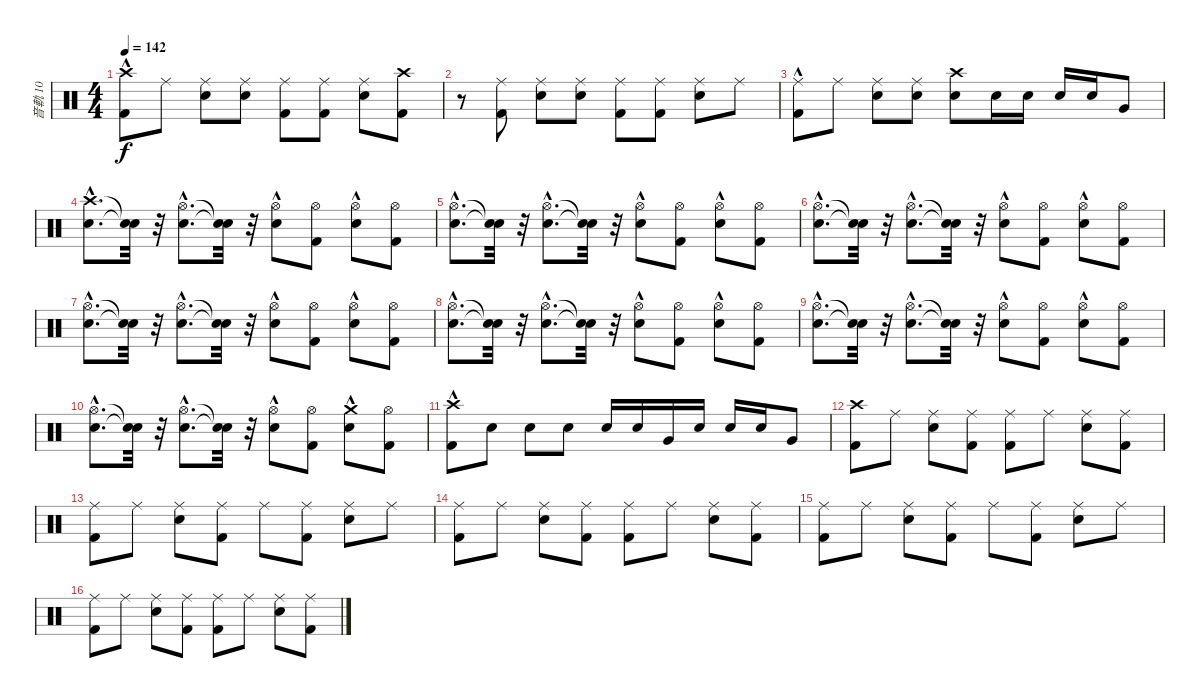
\track ("音軌 10" "音軌 10") {instrument percussion}
\staff {score}
\articulation defaults
\ts (4 4)
\tempo 142
\clef neutral
\ks c
("Crash high (hit)" "Kick (hit) 2"{hac}).8{dy f} "Ride (middle)".8 ("Ride (middle)" "Snare (hit) 2").8 ("Ride (middle)" "Snare (hit) 2").8 ("Ride (middle)" "Kick (hit) 2").8 ("Ride (middle)" "Kick (hit) 2").8 ("Ride (middle)" "Snare (hit) 2").8 ("Crash high (hit)" "Kick (hit) 2").8 |
r.8 ("Ride (middle)" "Kick (hit) 2").8 ("Ride (middle)" "Snare (hit) 2").8 ("Ride (middle)" "Snare (hit) 2").8 ("Ride (middle)" "Kick (hit) 2").8 ("Ride (middle)" "Kick (hit) 2").8 ("Ride (middle)" "Snare (hit) 2").8 "Ride (middle)".8 |
("Ride (middle)" "Kick (hit) 2"{hac}).8 "Ride (middle)".8 ("Ride (middle)" "Snare (hit) 2").8 ("Ride (middle)" "Snare (hit) 2").8 ("Crash high (hit)" "Snare (hit) 2").8 "Snare (hit)".16 "Snare (hit)".16 "Snare (hit) 2".16 "Snare (hit) 2".16 "Very Low Tom (hit)".8 |
("Crash high (hit)"{hac} "Snare (hit) 2"{hac}).8{d} ("Snare (hit)"{t} "Snare (hit)"{t}).32 r.32 ("Hi-Hat (open)"{hac} "Snare (hit) 2"{hac}).8{d} ("Snare (hit)"{t} "Snare (hit)"{t}).32 r.32 ("Hi-Hat (open)" "Snare (hit) 2"{hac}).8 ("Hi-Hat (open)" "Kick (hit) 2").8 ("Hi-Hat (open)" "Snare (hit) 2"{hac}).8 ("Hi-Hat (open)" "Kick (hit) 2").8 |
("Snare (hit) 2"{hac} "Hi-Hat (open)"{hac}).8{d} ("Snare (hit)"{t} "Snare (hit)"{t}).32 r.32 ("Hi-Hat (open)"{hac} "Snare (hit) 2"{hac}).8{d} ("Snare (hit)"{t} "Snare (hit)"{t}).32 r.32 ("Hi-Hat (open)" "Snare (hit) 2"{hac}).8 ("Hi-Hat (open)" "Kick (hit) 2").8 ("Hi-Hat (open)" "Snare (hit) 2"{hac}).8 ("Hi-Hat (open)" "Kick (hit) 2").8 |
("Snare (hit) 2"{hac} "Hi-Hat (open)"{hac}).8{d} ("Snare (hit)"{t} "Snare (hit)"{t}).32 r.32 ("Hi-Hat (open)"{hac} "Snare (hit) 2"{hac}).8{d} ("Snare (hit)"{t} "Snare (hit)"{t}).32 r.32 ("Hi-Hat (open)" "Snare (hit) 2"{hac}).8 ("Hi-Hat (open)" "Kick (hit) 2").8 ("Hi-Hat (open)" "Snare (hit) 2"{hac}).8 ("Hi-Hat (open)" "Kick (hit) 2").8 |
("Snare (hit) 2"{hac} "Hi-Hat (open)"{hac}).8{d} ("Snare (hit)"{t} "Snare (hit)"{t}).32 r.32 ("Hi-Hat (open)"{hac} "Snare (hit) 2"{hac}).8{d} ("Snare (hit)"{t} "Snare (hit)"{t}).32 r.32 ("Hi-Hat (open)" "Snare (hit) 2"{hac}).8 ("Hi-Hat (open)" "Kick (hit) 2").8 ("Hi-Hat (open)" "Snare (hit) 2"{hac}).8 ("Hi-Hat (open)" "Kick (hit) 2").8 |
("Snare (hit) 2"{hac} "Hi-Hat (open)"{hac}).8{d} ("Snare (hit)"{t} "Snare (hit)"{t}).32 r.32 ("Hi-Hat (open)"{hac} "Snare (hit) 2"{hac}).8{d} ("Snare (hit)"{t} "Snare (hit)"{t}).32 r.32 ("Hi-Hat (open)" "Snare (hit) 2"{hac}).8 ("Hi-Hat (open)" "Kick (hit) 2").8 ("Hi-Hat (open)" "Snare (hit) 2"{hac}).8 ("Hi-Hat (open)" "Kick (hit) 2").8 |
("Snare (hit) 2"{hac} "Hi-Hat (open)"{hac}).8{d} ("Snare (hit)"{t} "Snare (hit)"{t}).32 r.32 ("Hi-Hat (open)"{hac} "Snare (hit) 2"{hac}).8{d} ("Snare (hit)"{t} "Snare (hit)"{t}).32 r.32 ("Hi-Hat (open)" "Snare (hit) 2"{hac}).8 ("Hi-Hat (open)" "Kick (hit) 2").8 ("Hi-Hat (open)" "Snare (hit) 2"{hac}).8 ("Hi-Hat (open)" "Kick (hit) 2").8 |
("Snare (hit) 2"{hac} "Hi-Hat (open)"{hac}).8{d} ("Snare (hit)"{t} "Snare (hit)"{t}).32 r.32 ("Hi-Hat (open)"{hac} "Snare (hit) 2"{hac}).8{d} ("Snare (hit)"{t} "Snare (hit)"{t}).32 r.32 ("Hi-Hat (open)" "Snare (hit) 2"{hac}).8 ("Hi-Hat (open)" "Kick (hit) 2").8 ("Crash medium (hit)" "Snare (hit) 2"{hac}).8 ("Hi-Hat (open)" "Kick (hit) 2").8 |
("Crash high (hit)" "Kick (hit) 2"{hac}).8 "Snare (hit) 2".8 "Snare (hit) 2".8 "Snare (hit) 2".8 "Snare (hit) 2".16 "Snare (hit) 2".16 "Very Low Tom (hit)".16 "Snare (hit) 2".16 "Snare (hit) 2".16 "Snare (hit) 2".16 "Very Low Tom (hit)".8 |
("Crash high (hit)" "Kick (hit) 2").8 "Ride (middle)".8 ("Ride (middle)" "Snare (hit) 2").8 ("Ride (middle)" "Kick (hit) 2").8 ("Ride (middle)" "Kick (hit) 2").8 "Ride (middle)".8 ("Ride (middle)" "Snare (hit) 2").8 ("Ride (middle)" "Kick (hit) 2").8 |
("Kick (hit) 2" "Ride (middle)").8 "Ride (middle)".8 ("Ride (middle)" "Snare (hit) 2").8 ("Ride (middle)" "Kick (hit) 2").8 "Ride (middle)".8 ("Ride (middle)" "Kick (hit) 2").8 ("Ride (middle)" "Snare (hit) 2").8 "Ride (middle)".8 |
("Ride (middle)" "Kick (hit) 2").8 "Ride (middle)".8 ("Ride (middle)" "Snare (hit) 2").8 ("Ride (middle)" "Kick (hit) 2").8 ("Ride (middle)" "Kick (hit) 2").8 "Ride (middle)".8 ("Ride (middle)" "Snare (hit) 2").8 ("Ride (middle)" "Kick (hit) 2").8 |
("Kick (hit) 2" "Ride (middle)").8 "Ride (middle)".8 ("Ride (middle)" "Snare (hit) 2").8 ("Ride (middle)" "Kick (hit) 2").8 "Ride (middle)".8 ("Ride (middle)" "Kick (hit) 2").8 ("Ride (middle)" "Snare (hit) 2").8 "Ride (middle)".8 |
("Ride (middle)" "Kick (hit) 2").8 "Ride (middle)".8 ("Ride (middle)" "Snare (hit) 2").8 ("Ride (middle)" "Kick (hit) 2").8 ("Ride (middle)" "Kick (hit) 2").8 "Ride (middle)".8 ("Ride (middle)" "Snare (hit) 2").8 ("Ride (middle)" "Kick (hit) 2").8
